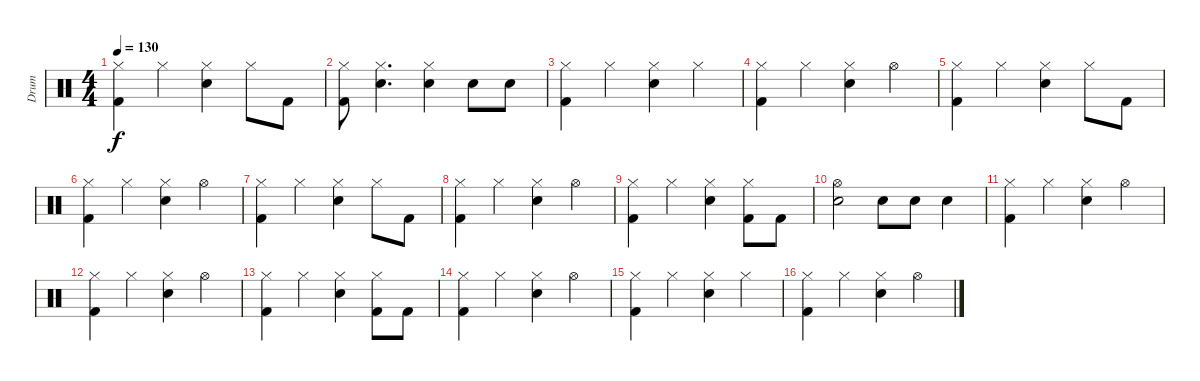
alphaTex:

\track ("Drum" "Drum") {instrument percussion}
\staff {score}
\articulation defaults
\ts (4 4)
\tempo 130
\clef neutral
\ks c
("Hi-Hat (closed)" "Kick (hit) 2").4{dy f} "Hi-Hat (closed)".4 ("Hi-Hat (closed)" "Snare (hit) 2").4 "Hi-Hat (closed)".8 "Kick (hit) 2".8 |
("Hi-Hat (closed)" "Kick (hit) 2").8 ("Hi-Hat (closed)" "Snare (hit) 2").4{d} ("Hi-Hat (closed)" "Snare (hit) 2").4 "Snare (hit) 2".8 "Snare (hit) 2".8 |
("Hi-Hat (closed)" "Kick (hit) 2").4 "Hi-Hat (closed)".4 ("Hi-Hat (closed)" "Snare (hit) 2").4 "Hi-Hat (closed)".4 |
("Hi-Hat (closed)" "Kick (hit) 2").4 "Hi-Hat (closed)".4 ("Hi-Hat (closed)" "Snare (hit) 2").4 "Hi-Hat (open)".4 |
("Hi-Hat (closed)" "Kick (hit) 2").4 "Hi-Hat (closed)".4 ("Hi-Hat (closed)" "Snare (hit) 2").4 "Hi-Hat (closed)".8 "Kick (hit) 2".8 |
("Hi-Hat (closed)" "Kick (hit) 2").4 "Hi-Hat (closed)".4 ("Hi-Hat (closed)" "Snare (hit) 2").4 "Hi-Hat (open)".4 |
("Hi-Hat (closed)" "Kick (hit) 2").4 "Hi-Hat (closed)".4 ("Hi-Hat (closed)" "Snare (hit) 2").4 "Hi-Hat (closed)".8 "Kick (hit) 2".8 |
("Hi-Hat (closed)" "Kick (hit) 2").4 "Hi-Hat (closed)".4 ("Hi-Hat (closed)" "Snare (hit) 2").4 "Hi-Hat (open)".4 |
("Hi-Hat (closed)" "Kick (hit) 2").4 "Hi-Hat (closed)".4 ("Hi-Hat (closed)" "Snare (hit) 2").4 ("Hi-Hat (closed)" "Kick (hit) 2").8 "Kick (hit) 2".8 |
("Hi-Hat (open)" "Snare (hit) 2").2 "Snare (hit) 2".8 "Snare (hit) 2".8 "Snare (hit) 2".4 |
("Hi-Hat (closed)" "Kick (hit) 2").4 "Hi-Hat (closed)".4 ("Hi-Hat (closed)" "Snare (hit) 2").4 "Hi-Hat (open)".4 |
("Hi-Hat (closed)" "Kick (hit) 2").4 "Hi-Hat (closed)".4 ("Hi-Hat (closed)" "Snare (hit) 2").4 "Hi-Hat (open)".4 |
("Hi-Hat (closed)" "Kick (hit) 2").4 "Hi-Hat (closed)".4 ("Hi-Hat (closed)" "Snare (hit) 2").4 ("Hi-Hat (closed)" "Kick (hit) 2").8 "Kick (hit) 2".8 |
("Hi-Hat (closed)" "Kick (hit) 2").4 "Hi-Hat (closed)".4 ("Hi-Hat (closed)" "Snare (hit) 2").4 "Hi-Hat (open)".4 |
("Hi-Hat (closed)" "Kick (hit) 2").4 "Hi-Hat (closed)".4 ("Hi-Hat (closed)" "Snare (hit) 2").4 "Hi-Hat (closed)".4 |
("Hi-Hat (closed)" "Kick (hit) 2").4 "Hi-Hat (closed)".4 ("Hi-Hat (closed)" "Snare (hit) 2").4 "Hi-Hat (open)".4
